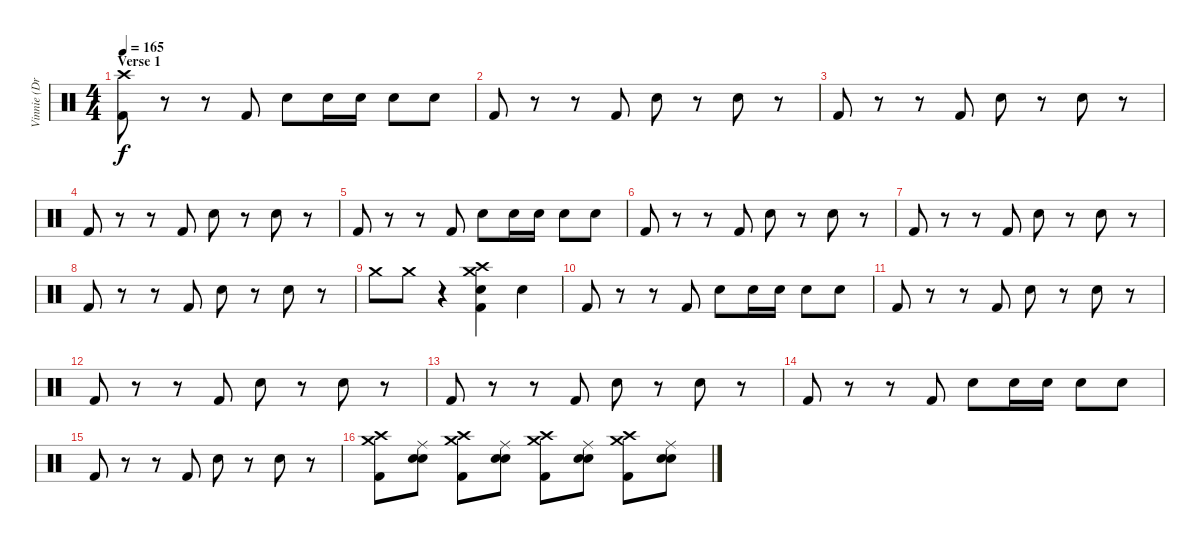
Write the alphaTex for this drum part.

\track ("Vinnie (Drums)" "Vinnie (Dr") {instrument percussion}
\staff {score}
\articulation defaults
\ts (4 4)
\section ("" "Verse 1")
\tempo 165
\clef neutral
\ks c
("Kick (hit) 2" "Crash high (hit)").8{dy f volume 10} r.8 r.8 "Kick (hit) 2".8 "Snare (hit) 2".8 "Snare (hit) 2".16 "Snare (hit) 2".16 "Snare (hit) 2".8 "Snare (hit) 2".8 |
"Kick (hit) 2".8 r.8 r.8 "Kick (hit) 2".8 "Snare (hit) 2".8 r.8 "Snare (hit) 2".8 r.8 |
"Kick (hit) 2".8 r.8 r.8 "Kick (hit) 2".8 "Snare (hit) 2".8 r.8 "Snare (hit) 2".8 r.8 |
"Kick (hit) 2".8 r.8 r.8 "Kick (hit) 2".8 "Snare (hit) 2".8 r.8 "Snare (hit) 2".8 r.8 |
"Kick (hit) 2".8 r.8 r.8 "Kick (hit) 2".8 "Snare (hit) 2".8 "Snare (hit) 2".16 "Snare (hit) 2".16 "Snare (hit) 2".8 "Snare (hit) 2".8 |
"Kick (hit) 2".8 r.8 r.8 "Kick (hit) 2".8 "Snare (hit) 2".8 r.8 "Snare (hit) 2".8 r.8 |
"Kick (hit) 2".8 r.8 r.8 "Kick (hit) 2".8 "Snare (hit) 2".8 r.8 "Snare (hit) 2".8 r.8 |
"Kick (hit) 2".8 r.8 r.8 "Kick (hit) 2".8 "Snare (hit) 2".8 r.8 "Snare (hit) 2".8 r.8 |
"Crash medium (hit)".8 "Crash medium (hit)".8 r.4 ("Crash medium (hit)" "Crash high (hit)" "Kick (hit) 2" "Snare (hit) 2").4 "Snare (hit) 2".4 |
"Kick (hit) 2".8 r.8 r.8 "Kick (hit) 2".8 "Snare (hit) 2".8 "Snare (hit) 2".16 "Snare (hit) 2".16 "Snare (hit) 2".8 "Snare (hit) 2".8 |
"Kick (hit) 2".8 r.8 r.8 "Kick (hit) 2".8 "Snare (hit) 2".8 r.8 "Snare (hit) 2".8 r.8 |
"Kick (hit) 2".8 r.8 r.8 "Kick (hit) 2".8 "Snare (hit) 2".8 r.8 "Snare (hit) 2".8 r.8 |
"Kick (hit) 2".8 r.8 r.8 "Kick (hit) 2".8 "Snare (hit) 2".8 r.8 "Snare (hit) 2".8 r.8 |
"Kick (hit) 2".8 r.8 r.8 "Kick (hit) 2".8 "Snare (hit) 2".8 "Snare (hit) 2".16 "Snare (hit) 2".16 "Snare (hit) 2".8 "Snare (hit) 2".8 |
"Kick (hit) 2".8 r.8 r.8 "Kick (hit) 2".8 "Snare (hit) 2".8 r.8 "Snare (hit) 2".8 r.8 |
("Kick (hit) 2" "Crash high (hit)" "Crash medium (hit)").8 ("Snare (hit) 2" "Electric Snare (hit)" "Ride (middle)").8 ("Kick (hit) 2" "Crash high (hit)" "Crash medium (hit)").8 ("Snare (hit) 2" "Electric Snare (hit)" "Ride (middle)").8 ("Kick (hit) 2" "Crash high (hit)" "Crash medium (hit)").8 ("Snare (hit) 2" "Electric Snare (hit)" "Ride (middle)").8 ("Kick (hit) 2" "Crash high (hit)" "Crash medium (hit)").8 ("Snare (hit) 2" "Electric Snare (hit)" "Ride (middle)").8
